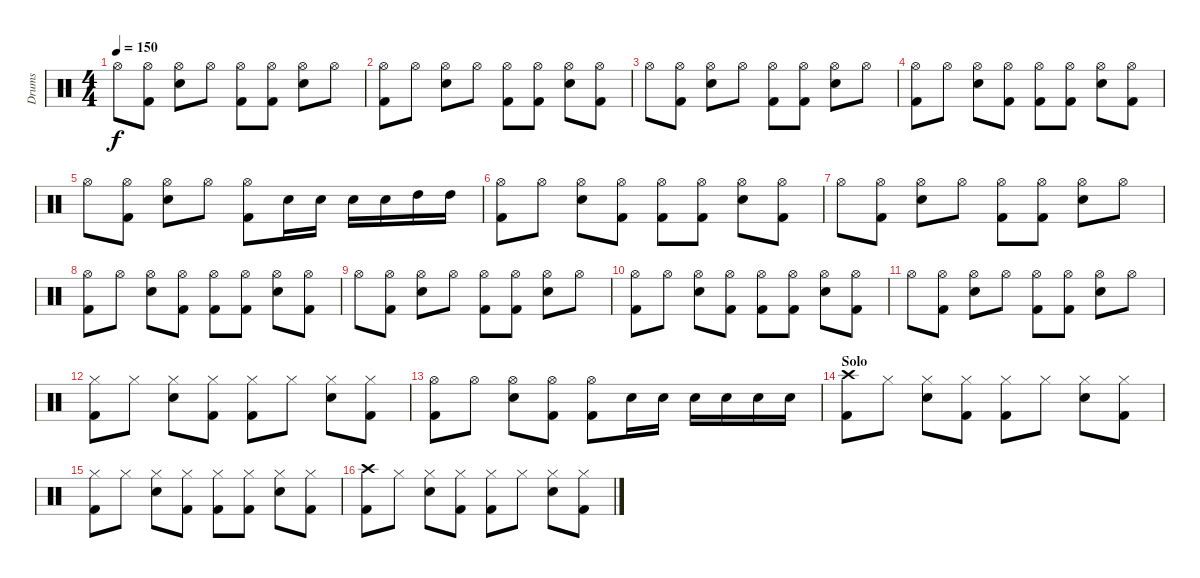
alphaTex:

\track ("Drums" "Drums") {instrument percussion}
\staff {score}
\articulation defaults
\ts (4 4)
\tempo 150
\clef neutral
\ks c "Hi-Hat (open)".8{dy f}
("Hi-Hat (open)" "Kick (hit) 2").8 ("Hi-Hat (open)" "Electric Snare (hit)").8 "Hi-Hat (open)".8 ("Hi-Hat (open)" "Kick (hit) 2").8 ("Hi-Hat (open)" "Kick (hit) 2").8 ("Hi-Hat (open)" "Electric Snare (hit)").8 "Hi-Hat (open)".8 |
("Hi-Hat (open)" "Kick (hit) 2").8 "Hi-Hat (open)".8 ("Hi-Hat (open)" "Electric Snare (hit)").8 "Hi-Hat (open)".8 ("Hi-Hat (open)" "Kick (hit) 2").8 ("Hi-Hat (open)" "Kick (hit) 2").8 ("Hi-Hat (open)" "Electric Snare (hit)").8 ("Hi-Hat (open)" "Kick (hit) 2").8 |
"Hi-Hat (open)".8 ("Hi-Hat (open)" "Kick (hit) 2").8 ("Hi-Hat (open)" "Electric Snare (hit)").8 "Hi-Hat (open)".8 ("Hi-Hat (open)" "Kick (hit) 2").8 ("Hi-Hat (open)" "Kick (hit) 2").8 ("Hi-Hat (open)" "Electric Snare (hit)").8 "Hi-Hat (open)".8 |
("Hi-Hat (open)" "Kick (hit) 2").8 "Hi-Hat (open)".8 ("Hi-Hat (open)" "Electric Snare (hit)").8 ("Hi-Hat (open)" "Kick (hit) 2").8 ("Hi-Hat (open)" "Kick (hit) 2").8 ("Hi-Hat (open)" "Kick (hit) 2").8 ("Hi-Hat (open)" "Electric Snare (hit)").8 ("Hi-Hat (open)" "Kick (hit) 2").8 |
"Hi-Hat (open)".8 ("Hi-Hat (open)" "Kick (hit) 2").8 ("Hi-Hat (open)" "Electric Snare (hit)").8 "Hi-Hat (open)".8 ("Hi-Hat (open)" "Kick (hit) 2").8 "Electric Snare (hit)".16 "Electric Snare (hit)".16 "Electric Snare (hit)".16 "Electric Snare (hit)".16 "High Tom (hit)".16 "High Tom (hit)".16 |
("Hi-Hat (open)" "Kick (hit) 2").8 "Hi-Hat (open)".8 ("Hi-Hat (open)" "Electric Snare (hit)").8 ("Hi-Hat (open)" "Kick (hit) 2").8 ("Hi-Hat (open)" "Kick (hit) 2").8 ("Hi-Hat (open)" "Kick (hit) 2").8 ("Hi-Hat (open)" "Electric Snare (hit)").8 ("Hi-Hat (open)" "Kick (hit) 2").8 |
"Hi-Hat (open)".8 ("Hi-Hat (open)" "Kick (hit) 2").8 ("Hi-Hat (open)" "Electric Snare (hit)").8 "Hi-Hat (open)".8 ("Hi-Hat (open)" "Kick (hit) 2").8 ("Hi-Hat (open)" "Kick (hit) 2").8 ("Hi-Hat (open)" "Electric Snare (hit)").8 "Hi-Hat (open)".8 |
("Hi-Hat (open)" "Kick (hit) 2").8 "Hi-Hat (open)".8 ("Hi-Hat (open)" "Electric Snare (hit)").8 ("Hi-Hat (open)" "Kick (hit) 2").8 ("Hi-Hat (open)" "Kick (hit) 2").8 ("Hi-Hat (open)" "Kick (hit) 2").8 ("Hi-Hat (open)" "Electric Snare (hit)").8 ("Hi-Hat (open)" "Kick (hit) 2").8 |
"Hi-Hat (open)".8 ("Hi-Hat (open)" "Kick (hit) 2").8 ("Hi-Hat (open)" "Electric Snare (hit)").8 "Hi-Hat (open)".8 ("Hi-Hat (open)" "Kick (hit) 2").8 ("Hi-Hat (open)" "Kick (hit) 2").8 ("Hi-Hat (open)" "Electric Snare (hit)").8 "Hi-Hat (open)".8 |
("Hi-Hat (open)" "Kick (hit) 2").8 "Hi-Hat (open)".8 ("Hi-Hat (open)" "Electric Snare (hit)").8 ("Hi-Hat (open)" "Kick (hit) 2").8 ("Hi-Hat (open)" "Kick (hit) 2").8 ("Hi-Hat (open)" "Kick (hit) 2").8 ("Hi-Hat (open)" "Electric Snare (hit)").8 ("Hi-Hat (open)" "Kick (hit) 2").8 |
"Hi-Hat (open)".8 ("Hi-Hat (open)" "Kick (hit) 2").8 ("Hi-Hat (open)" "Electric Snare (hit)").8 "Hi-Hat (open)".8 ("Hi-Hat (open)" "Kick (hit) 2").8 ("Hi-Hat (open)" "Kick (hit) 2").8 ("Hi-Hat (open)" "Electric Snare (hit)").8 "Hi-Hat (open)".8 |
("Hi-Hat (closed)" "Kick (hit) 2").8 "Hi-Hat (closed)".8 ("Hi-Hat (closed)" "Electric Snare (hit)").8 ("Hi-Hat (closed)" "Kick (hit) 2").8 ("Hi-Hat (closed)" "Kick (hit) 2").8 "Hi-Hat (closed)".8 ("Hi-Hat (closed)" "Electric Snare (hit)").8 ("Hi-Hat (closed)" "Kick (hit) 2").8 |
("Hi-Hat (open)" "Kick (hit) 2").8 "Hi-Hat (open)".8 ("Hi-Hat (open)" "Electric Snare (hit)").8 ("Hi-Hat (open)" "Kick (hit) 2").8 ("Hi-Hat (open)" "Kick (hit) 2").8 "Electric Snare (hit)".16 "Electric Snare (hit)".16 "Electric Snare (hit)".16 "Electric Snare (hit)".16 "Electric Snare (hit)".16 "Electric Snare (hit)".16 |
\section ("" "Solo")
("Crash high (hit)" "Kick (hit) 2").8 "Hi-Hat (closed)".8 ("Hi-Hat (closed)" "Electric Snare (hit)").8 ("Hi-Hat (closed)" "Kick (hit) 2").8 ("Hi-Hat (closed)" "Kick (hit) 2").8 "Hi-Hat (closed)".8 ("Hi-Hat (closed)" "Electric Snare (hit)").8 ("Hi-Hat (closed)" "Kick (hit) 2").8 |
("Hi-Hat (closed)" "Kick (hit) 2").8 "Hi-Hat (closed)".8 ("Hi-Hat (closed)" "Electric Snare (hit)").8 ("Hi-Hat (closed)" "Kick (hit) 2").8 ("Hi-Hat (closed)" "Kick (hit) 2").8 ("Hi-Hat (closed)" "Kick (hit) 2").8 ("Hi-Hat (closed)" "Electric Snare (hit)").8 ("Hi-Hat (closed)" "Kick (hit) 2").8 |
("Crash high (hit)" "Kick (hit) 2").8 "Hi-Hat (closed)".8 ("Hi-Hat (closed)" "Electric Snare (hit)").8 ("Hi-Hat (closed)" "Kick (hit) 2").8 ("Hi-Hat (closed)" "Kick (hit) 2").8 "Hi-Hat (closed)".8 ("Hi-Hat (closed)" "Electric Snare (hit)").8 ("Hi-Hat (closed)" "Kick (hit) 2").8
